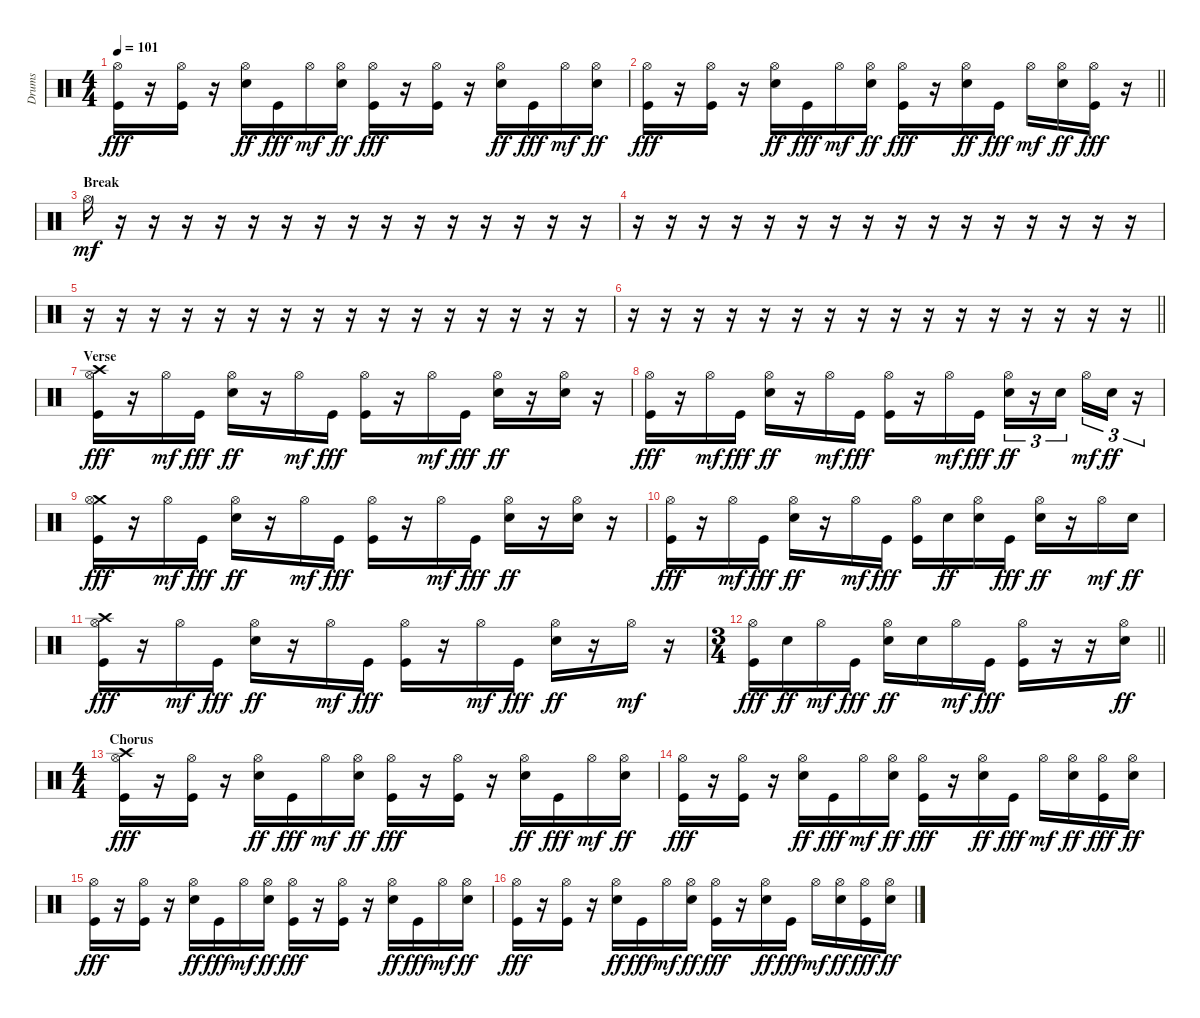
\track ("Drums" "Drums") {instrument percussion}
\staff {score}
\articulation defaults
\ts (4 4)
\tempo 101
\clef neutral
\ks c
("Hi-Hat (open)" "Kick (hit)").16{dy fff} r.16 ("Hi-Hat (open)" "Kick (hit)").16 r.16 ("Hi-Hat (open)" "Electric Snare (hit)").16{dy ff} "Kick (hit)".16{dy fff} "Hi-Hat (open)".16{dy mf} ("Hi-Hat (open)" "Electric Snare (hit)").16{dy ff} ("Hi-Hat (open)" "Kick (hit)").16{dy fff} r.16 ("Hi-Hat (open)" "Kick (hit)").16 r.16 ("Hi-Hat (open)" "Electric Snare (hit)").16{dy ff} "Kick (hit)".16{dy fff} "Hi-Hat (open)".16{dy mf} ("Hi-Hat (open)" "Electric Snare (hit)").16{dy ff} |
\barLineRight lightlight
("Hi-Hat (open)" "Kick (hit)").16{dy fff} r.16 ("Hi-Hat (open)" "Kick (hit)").16 r.16 ("Hi-Hat (open)" "Electric Snare (hit)").16{dy ff} "Kick (hit)".16{dy fff} "Hi-Hat (open)".16{dy mf} ("Hi-Hat (open)" "Electric Snare (hit)").16{dy ff} ("Hi-Hat (open)" "Kick (hit)").16{dy fff} r.16 ("Hi-Hat (open)" "Electric Snare (hit)").16{dy ff} "Kick (hit)".16{dy fff} "Hi-Hat (open)".16{dy mf} ("Hi-Hat (open)" "Electric Snare (hit)").16{dy ff} ("Hi-Hat (open)" "Kick (hit)").16{dy fff} r.16 |
\section ("" "Break")
"Hi-Hat (open)".16{dy mf} r.16 r.16 r.16 r.16 r.16 r.16 r.16 r.16 r.16 r.16 r.16 r.16 r.16 r.16 r.16 |
r.16 r.16 r.16 r.16 r.16 r.16 r.16 r.16 r.16 r.16 r.16 r.16 r.16 r.16 r.16 r.16 |
r.16 r.16 r.16 r.16 r.16 r.16 r.16 r.16 r.16 r.16 r.16 r.16 r.16 r.16 r.16 r.16 |
\barLineRight lightlight
r.16 r.16 r.16 r.16 r.16 r.16 r.16 r.16 r.16 r.16 r.16 r.16 r.16 r.16 r.16 r.16 |
\section ("" "Verse")
("Crash high (hit)" "Hi-Hat (open)" "Kick (hit)").16{dy fff} r.16 "Hi-Hat (open)".16{dy mf} "Kick (hit)".16{dy fff} ("Hi-Hat (open)" "Electric Snare (hit)").16{dy ff} r.16 "Hi-Hat (open)".16{dy mf} "Kick (hit)".16{dy fff} ("Hi-Hat (open)" "Kick (hit)").16 r.16 "Hi-Hat (open)".16{dy mf} "Kick (hit)".16{dy fff} ("Hi-Hat (open)" "Electric Snare (hit)").16{dy ff} r.16 ("Hi-Hat (open)" "Electric Snare (hit)").16 r.16 |
("Hi-Hat (open)" "Kick (hit)").16{dy fff} r.16 "Hi-Hat (open)".16{dy mf} "Kick (hit)".16{dy fff} ("Hi-Hat (open)" "Electric Snare (hit)").16{dy ff} r.16 "Hi-Hat (open)".16{dy mf} "Kick (hit)".16{dy fff} ("Hi-Hat (open)" "Kick (hit)").16 r.16 "Hi-Hat (open)".16{dy mf} "Kick (hit)".16{dy fff} ("Hi-Hat (open)" "Electric Snare (hit)").16{tu (3 2) dy ff} r.16{tu (3 2)} "Electric Snare (hit)".16{tu (3 2) beam splitsecondary} "Hi-Hat (open)".16{tu (3 2) dy mf} "Electric Snare (hit)".16{tu (3 2) dy ff} r.16{tu (3 2)} |
("Crash medium (hit)" "Hi-Hat (open)" "Kick (hit)").16{dy fff} r.16 "Hi-Hat (open)".16{dy mf} "Kick (hit)".16{dy fff} ("Hi-Hat (open)" "Electric Snare (hit)").16{dy ff} r.16 "Hi-Hat (open)".16{dy mf} "Kick (hit)".16{dy fff} ("Hi-Hat (open)" "Kick (hit)").16 r.16 "Hi-Hat (open)".16{dy mf} "Kick (hit)".16{dy fff} ("Hi-Hat (open)" "Electric Snare (hit)").16{dy ff} r.16 ("Hi-Hat (open)" "Electric Snare (hit)").16 r.16 |
("Hi-Hat (open)" "Kick (hit)").16{dy fff} r.16 "Hi-Hat (open)".16{dy mf} "Kick (hit)".16{dy fff} ("Hi-Hat (open)" "Electric Snare (hit)").16{dy ff} r.16 "Hi-Hat (open)".16{dy mf} "Kick (hit)".16{dy fff} ("Hi-Hat (open)" "Kick (hit)").16 "Electric Snare (hit)".16{dy ff} ("Hi-Hat (open)" "Electric Snare (hit)").16 "Kick (hit)".16{dy fff} ("Hi-Hat (open)" "Electric Snare (hit)").16{dy ff} r.16 "Hi-Hat (open)".16{dy mf} "Electric Snare (hit)".16{dy ff} |
("Crash high (hit)" "Hi-Hat (open)" "Kick (hit)").16{dy fff} r.16 "Hi-Hat (open)".16{dy mf} "Kick (hit)".16{dy fff} ("Hi-Hat (open)" "Electric Snare (hit)").16{dy ff} r.16 "Hi-Hat (open)".16{dy mf} "Kick (hit)".16{dy fff} ("Hi-Hat (open)" "Kick (hit)").16 r.16 "Hi-Hat (open)".16{dy mf} "Kick (hit)".16{dy fff} ("Hi-Hat (open)" "Electric Snare (hit)").16{dy ff} r.16 "Hi-Hat (open)".16{dy mf} r.16 |
\ts (3 4)
\barLineRight lightlight
("Hi-Hat (open)" "Kick (hit)").16{dy fff} "Electric Snare (hit)".16{dy ff} "Hi-Hat (open)".16{dy mf} "Kick (hit)".16{dy fff} ("Hi-Hat (open)" "Electric Snare (hit)").16{dy ff} "Electric Snare (hit)".16 "Hi-Hat (open)".16{dy mf} "Kick (hit)".16{dy fff} ("Hi-Hat (open)" "Kick (hit)").16 r.16 r.16 ("Hi-Hat (open)" "Electric Snare (hit)").16{dy ff} |
\ts (4 4)
\section ("" "Chorus")
("Crash high (hit)" "Hi-Hat (open)" "Kick (hit)").16{dy fff} r.16 ("Hi-Hat (open)" "Kick (hit)").16 r.16 ("Hi-Hat (open)" "Electric Snare (hit)").16{dy ff} "Kick (hit)".16{dy fff} "Hi-Hat (open)".16{dy mf} ("Hi-Hat (open)" "Electric Snare (hit)").16{dy ff} ("Hi-Hat (open)" "Kick (hit)").16{dy fff} r.16 ("Hi-Hat (open)" "Kick (hit)").16 r.16 ("Hi-Hat (open)" "Electric Snare (hit)").16{dy ff} "Kick (hit)".16{dy fff} "Hi-Hat (open)".16{dy mf} ("Hi-Hat (open)" "Electric Snare (hit)").16{dy ff} |
("Hi-Hat (open)" "Kick (hit)").16{dy fff} r.16 ("Hi-Hat (open)" "Kick (hit)").16 r.16 ("Hi-Hat (open)" "Electric Snare (hit)").16{dy ff} "Kick (hit)".16{dy fff} "Hi-Hat (open)".16{dy mf} ("Hi-Hat (open)" "Electric Snare (hit)").16{dy ff} ("Hi-Hat (open)" "Kick (hit)").16{dy fff} r.16 ("Hi-Hat (open)" "Electric Snare (hit)").16{dy ff} "Kick (hit)".16{dy fff} "Hi-Hat (open)".16{dy mf} ("Hi-Hat (open)" "Electric Snare (hit)").16{dy ff} ("Hi-Hat (open)" "Kick (hit)").16{dy fff} ("Hi-Hat (open)" "Electric Snare (hit)").16{dy ff} |
("Hi-Hat (open)" "Kick (hit)").16{dy fff} r.16 ("Hi-Hat (open)" "Kick (hit)").16 r.16 ("Hi-Hat (open)" "Electric Snare (hit)").16{dy ff} "Kick (hit)".16{dy fff} "Hi-Hat (open)".16{dy mf} ("Hi-Hat (open)" "Electric Snare (hit)").16{dy ff} ("Hi-Hat (open)" "Kick (hit)").16{dy fff} r.16 ("Hi-Hat (open)" "Kick (hit)").16 r.16 ("Hi-Hat (open)" "Electric Snare (hit)").16{dy ff} "Kick (hit)".16{dy fff} "Hi-Hat (open)".16{dy mf} ("Hi-Hat (open)" "Electric Snare (hit)").16{dy ff} |
("Hi-Hat (open)" "Kick (hit)").16{dy fff} r.16 ("Hi-Hat (open)" "Kick (hit)").16 r.16 ("Hi-Hat (open)" "Electric Snare (hit)").16{dy ff} "Kick (hit)".16{dy fff} "Hi-Hat (open)".16{dy mf} ("Hi-Hat (open)" "Electric Snare (hit)").16{dy ff} ("Hi-Hat (open)" "Kick (hit)").16{dy fff} r.16 ("Hi-Hat (open)" "Electric Snare (hit)").16{dy ff} "Kick (hit)".16{dy fff} "Hi-Hat (open)".16{dy mf} ("Hi-Hat (open)" "Electric Snare (hit)").16{dy ff} ("Hi-Hat (open)" "Kick (hit)").16{dy fff} ("Hi-Hat (open)" "Electric Snare (hit)").16{dy ff}
